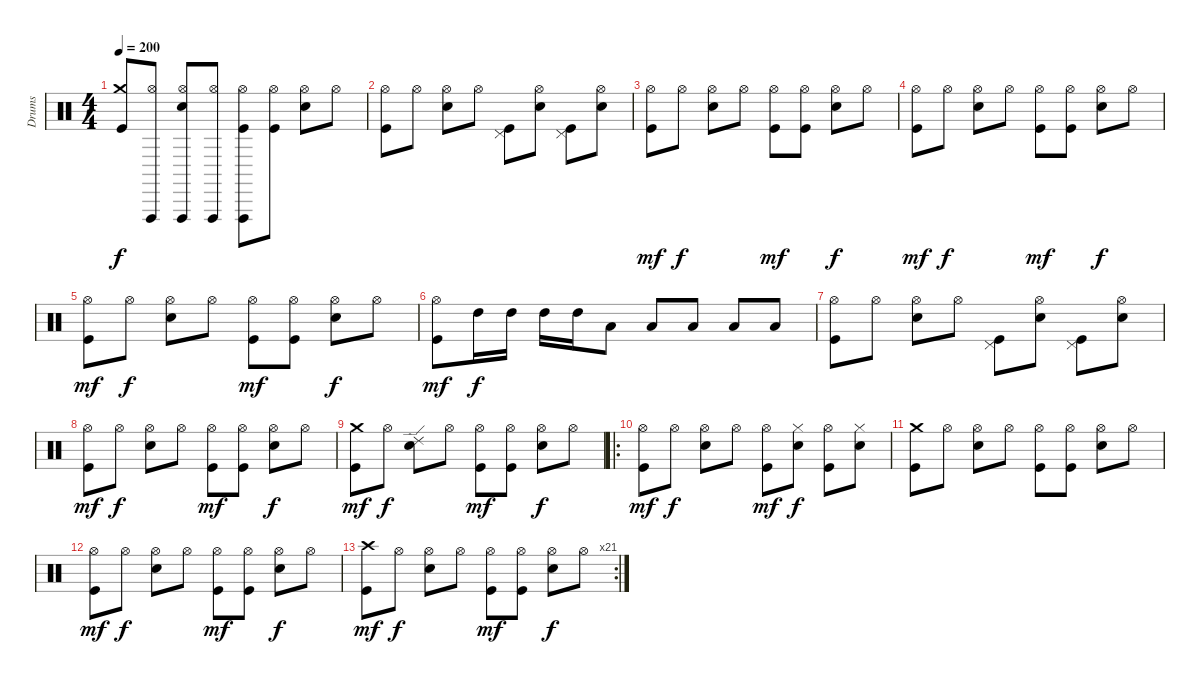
\track ("Drums" "Drums") {instrument percussion}
\staff {score}
\articulation defaults
\ts (4 4)
\tempo 200
\clef neutral
\ks c
("Crash medium (hit)" "Kick (hit)").8{dy f} ("Vibraslap (hit)" "Hi-Hat (open)").8 ("Vibraslap (hit)" "Hi-Hat (open)" "Snare (hit) 2").8 ("Vibraslap (hit)" "Hi-Hat (open)").8 ("Vibraslap (hit)" "Hi-Hat (open)" "Kick (hit)").8 ("Hi-Hat (open)" "Kick (hit)").8 ("Hi-Hat (open)" "Snare (hit) 2").8 "Hi-Hat (open)".8 |
("Hi-Hat (open)" "Kick (hit)").8 "Hi-Hat (open)".8 ("Hi-Hat (open)" "Snare (hit) 2").8 "Hi-Hat (open)".8 ("Pedal Hi-Hat (hit)" "Kick (hit)").8 ("Hi-Hat (open)" "Snare (hit) 2").8 ("Pedal Hi-Hat (hit)" "Kick (hit)").8 ("Hi-Hat (open)" "Snare (hit) 2").8 |
("Hi-Hat (open)" "Kick (hit)").8{dy mf} "Hi-Hat (open)".8{dy f} ("Hi-Hat (open)" "Snare (hit) 2").8 "Hi-Hat (open)".8 ("Hi-Hat (open)" "Kick (hit)").8{dy mf} ("Hi-Hat (open)" "Kick (hit)").8 ("Hi-Hat (open)" "Snare (hit) 2").8{dy f} "Hi-Hat (open)".8 |
("Hi-Hat (open)" "Kick (hit)").8{dy mf} "Hi-Hat (open)".8{dy f} ("Hi-Hat (open)" "Snare (hit) 2").8 "Hi-Hat (open)".8 ("Hi-Hat (open)" "Kick (hit)").8{dy mf} ("Hi-Hat (open)" "Kick (hit)").8 ("Hi-Hat (open)" "Snare (hit) 2").8{dy f} "Hi-Hat (open)".8 |
("Hi-Hat (open)" "Kick (hit)").8{dy mf} "Hi-Hat (open)".8{dy f} ("Hi-Hat (open)" "Snare (hit) 2").8 "Hi-Hat (open)".8 ("Hi-Hat (open)" "Kick (hit)").8{dy mf} ("Hi-Hat (open)" "Kick (hit)").8 ("Hi-Hat (open)" "Snare (hit) 2").8{dy f} "Hi-Hat (open)".8 |
("Hi-Hat (open)" "Kick (hit)").8{dy mf} "High Tom (hit)".16{dy f} "High Tom (hit)".16 "High Tom (hit)".16 "High Tom (hit)".16 "Low Tom (hit)".8 "Low Tom (hit)".8 "Low Tom (hit)".8 "Low Tom (hit)".8 "Low Tom (hit)".8 |
("Hi-Hat (open)" "Kick (hit)").8 "Hi-Hat (open)".8 ("Hi-Hat (open)" "Snare (hit) 2").8 "Hi-Hat (open)".8 ("Pedal Hi-Hat (hit)" "Kick (hit)").8 ("Hi-Hat (open)" "Snare (hit) 2").8 ("Pedal Hi-Hat (hit)" "Kick (hit)").8 ("Hi-Hat (open)" "Snare (hit) 2").8 |
("Hi-Hat (open)" "Kick (hit)").8{dy mf} "Hi-Hat (open)".8{dy f} ("Hi-Hat (open)" "Snare (hit) 2").8 "Hi-Hat (open)".8 ("Hi-Hat (open)" "Kick (hit)").8{dy mf} ("Hi-Hat (open)" "Kick (hit)").8 ("Hi-Hat (open)" "Snare (hit) 2").8{dy f} "Hi-Hat (open)".8 |
("Crash medium (hit)" "Kick (hit)").8{dy mf} "Hi-Hat (open)".8{dy f} ("Ride (edge) 2" "Snare (hit) 2").8 "Hi-Hat (open)".8 ("Hi-Hat (open)" "Kick (hit)").8{dy mf} ("Hi-Hat (open)" "Kick (hit)").8 ("Hi-Hat (open)" "Snare (hit) 2").8{dy f} "Hi-Hat (open)".8 |
\ro
("Hi-Hat (open)" "Kick (hit)").8{dy mf} "Hi-Hat (open)".8{dy f} ("Hi-Hat (open)" "Snare (hit) 2").8 "Hi-Hat (open)".8 ("Hi-Hat (open)" "Kick (hit)").8{dy mf} ("Hi-Hat (closed)" "Snare (hit) 2").8{dy f} ("Hi-Hat (open)" "Kick (hit)").8 ("Hi-Hat (closed)" "Snare (hit) 2").8 |
("Crash medium (hit)" "Kick (hit)").8 "Hi-Hat (open)".8 ("Hi-Hat (open)" "Snare (hit) 2").8 "Hi-Hat (open)".8 ("Hi-Hat (open)" "Kick (hit)").8 ("Hi-Hat (open)" "Kick (hit)").8 ("Hi-Hat (open)" "Snare (hit) 2").8 "Hi-Hat (open)".8 |
("Hi-Hat (open)" "Kick (hit)").8{dy mf} "Hi-Hat (open)".8{dy f} ("Hi-Hat (open)" "Snare (hit) 2").8 "Hi-Hat (open)".8 ("Hi-Hat (open)" "Kick (hit)").8{dy mf} ("Hi-Hat (open)" "Kick (hit)").8 ("Hi-Hat (open)" "Snare (hit) 2").8{dy f} "Hi-Hat (open)".8 |
\rc 21
("Crash high (hit)" "Kick (hit)").8{dy mf} "Hi-Hat (open)".8{dy f} ("Hi-Hat (open)" "Snare (hit) 2").8 "Hi-Hat (open)".8 ("Hi-Hat (open)" "Kick (hit)").8{dy mf} ("Hi-Hat (open)" "Kick (hit)").8 ("Hi-Hat (open)" "Snare (hit) 2").8{dy f} "Hi-Hat (open)".8
